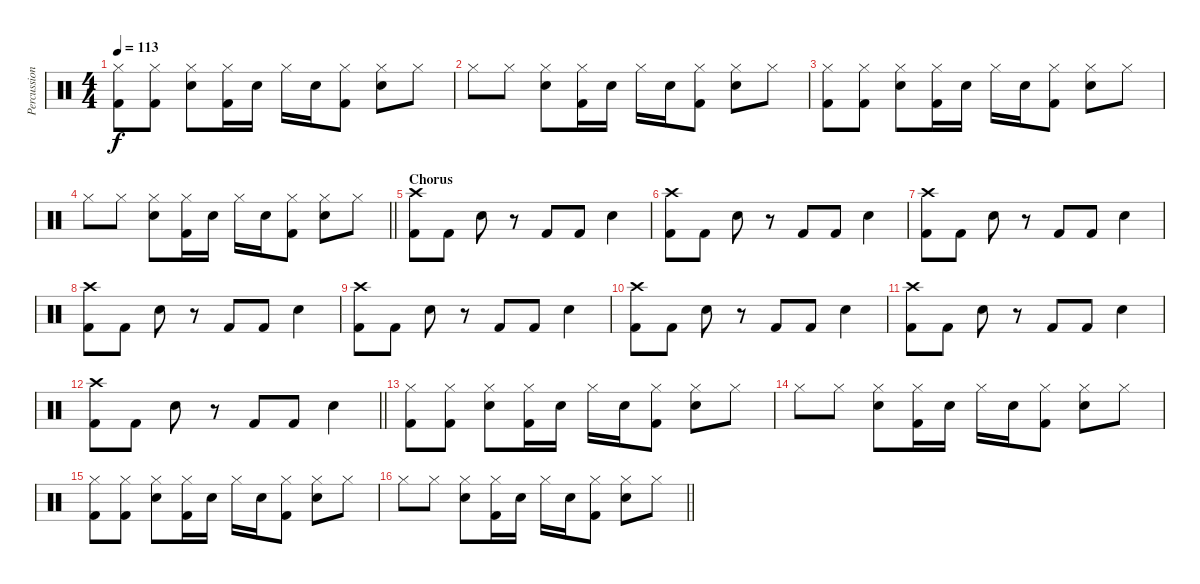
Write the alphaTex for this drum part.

\track ("Percussion" "Percussion") {instrument percussion}
\staff {score}
\articulation defaults
\ts (4 4)
\section ("" "")
\tempo 113
\clef neutral
\ks c
("Hi-Hat (closed)" "Kick (hit) 2").8{dy f} ("Hi-Hat (closed)" "Kick (hit) 2").8 ("Hi-Hat (closed)" "Snare (hit) 2").8 ("Hi-Hat (closed)" "Kick (hit) 2").16 "Snare (hit) 2".16 "Hi-Hat (closed)".16 "Snare (hit) 2".16 ("Hi-Hat (closed)" "Kick (hit) 2").8 ("Hi-Hat (closed)" "Snare (hit) 2").8 "Hi-Hat (closed)".8 |
"Hi-Hat (closed)".8 "Hi-Hat (closed)".8 ("Hi-Hat (closed)" "Snare (hit) 2").8 ("Hi-Hat (closed)" "Kick (hit) 2").16 "Snare (hit) 2".16 "Hi-Hat (closed)".16 "Snare (hit) 2".16 ("Hi-Hat (closed)" "Kick (hit) 2").8 ("Hi-Hat (closed)" "Snare (hit) 2").8 "Hi-Hat (closed)".8 |
("Hi-Hat (closed)" "Kick (hit) 2").8 ("Hi-Hat (closed)" "Kick (hit) 2").8 ("Hi-Hat (closed)" "Snare (hit) 2").8 ("Hi-Hat (closed)" "Kick (hit) 2").16 "Snare (hit) 2".16 "Hi-Hat (closed)".16 "Snare (hit) 2".16 ("Hi-Hat (closed)" "Kick (hit) 2").8 ("Hi-Hat (closed)" "Snare (hit) 2").8 "Hi-Hat (closed)".8 |
\barLineRight lightlight "Hi-Hat (closed)".8 "Hi-Hat (closed)".8
("Hi-Hat (closed)" "Snare (hit) 2").8 ("Hi-Hat (closed)" "Kick (hit) 2").16 "Snare (hit) 2".16 "Hi-Hat (closed)".16 "Snare (hit) 2".16 ("Hi-Hat (closed)" "Kick (hit) 2").8 ("Hi-Hat (closed)" "Snare (hit) 2").8 "Hi-Hat (closed)".8 |
\section ("" "Chorus")
("Crash high (hit)" "Kick (hit) 2").8 "Kick (hit) 2".8 "Snare (hit) 2".8 r.8 "Kick (hit) 2".8 "Kick (hit) 2".8 "Snare (hit) 2".4 |
("Crash high (hit)" "Kick (hit) 2").8 "Kick (hit) 2".8 "Snare (hit) 2".8 r.8 "Kick (hit) 2".8 "Kick (hit) 2".8 "Snare (hit) 2".4 |
("Crash high (hit)" "Kick (hit) 2").8 "Kick (hit) 2".8 "Snare (hit) 2".8 r.8 "Kick (hit) 2".8 "Kick (hit) 2".8 "Snare (hit) 2".4 |
("Crash high (hit)" "Kick (hit) 2").8 "Kick (hit) 2".8 "Snare (hit) 2".8 r.8 "Kick (hit) 2".8 "Kick (hit) 2".8 "Snare (hit) 2".4 |
("Crash high (hit)" "Kick (hit) 2").8 "Kick (hit) 2".8 "Snare (hit) 2".8 r.8 "Kick (hit) 2".8 "Kick (hit) 2".8 "Snare (hit) 2".4 |
("Crash high (hit)" "Kick (hit) 2").8 "Kick (hit) 2".8 "Snare (hit) 2".8 r.8 "Kick (hit) 2".8 "Kick (hit) 2".8 "Snare (hit) 2".4 |
("Crash high (hit)" "Kick (hit) 2").8 "Kick (hit) 2".8 "Snare (hit) 2".8 r.8 "Kick (hit) 2".8 "Kick (hit) 2".8 "Snare (hit) 2".4 |
\barLineRight lightlight
("Crash high (hit)" "Kick (hit) 2").8 "Kick (hit) 2".8 "Snare (hit) 2".8 r.8 "Kick (hit) 2".8 "Kick (hit) 2".8 "Snare (hit) 2".4 |
\section ("" "")
("Hi-Hat (closed)" "Kick (hit) 2").8 ("Hi-Hat (closed)" "Kick (hit) 2").8 ("Hi-Hat (closed)" "Snare (hit) 2").8 ("Hi-Hat (closed)" "Kick (hit) 2").16 "Snare (hit) 2".16 "Hi-Hat (closed)".16 "Snare (hit) 2".16 ("Hi-Hat (closed)" "Kick (hit) 2").8 ("Hi-Hat (closed)" "Snare (hit) 2").8 "Hi-Hat (closed)".8 |
"Hi-Hat (closed)".8 "Hi-Hat (closed)".8 ("Hi-Hat (closed)" "Snare (hit) 2").8 ("Hi-Hat (closed)" "Kick (hit) 2").16 "Snare (hit) 2".16 "Hi-Hat (closed)".16 "Snare (hit) 2".16 ("Hi-Hat (closed)" "Kick (hit) 2").8 ("Hi-Hat (closed)" "Snare (hit) 2").8 "Hi-Hat (closed)".8 |
("Hi-Hat (closed)" "Kick (hit) 2").8 ("Hi-Hat (closed)" "Kick (hit) 2").8 ("Hi-Hat (closed)" "Snare (hit) 2").8 ("Hi-Hat (closed)" "Kick (hit) 2").16 "Snare (hit) 2".16 "Hi-Hat (closed)".16 "Snare (hit) 2".16 ("Hi-Hat (closed)" "Kick (hit) 2").8 ("Hi-Hat (closed)" "Snare (hit) 2").8 "Hi-Hat (closed)".8 |
\barLineRight lightlight "Hi-Hat (closed)".8 "Hi-Hat (closed)".8
("Hi-Hat (closed)" "Snare (hit) 2").8 ("Hi-Hat (closed)" "Kick (hit) 2").16 "Snare (hit) 2".16 "Hi-Hat (closed)".16 "Snare (hit) 2".16 ("Hi-Hat (closed)" "Kick (hit) 2").8 ("Hi-Hat (closed)" "Snare (hit) 2").8 "Hi-Hat (closed)".8
